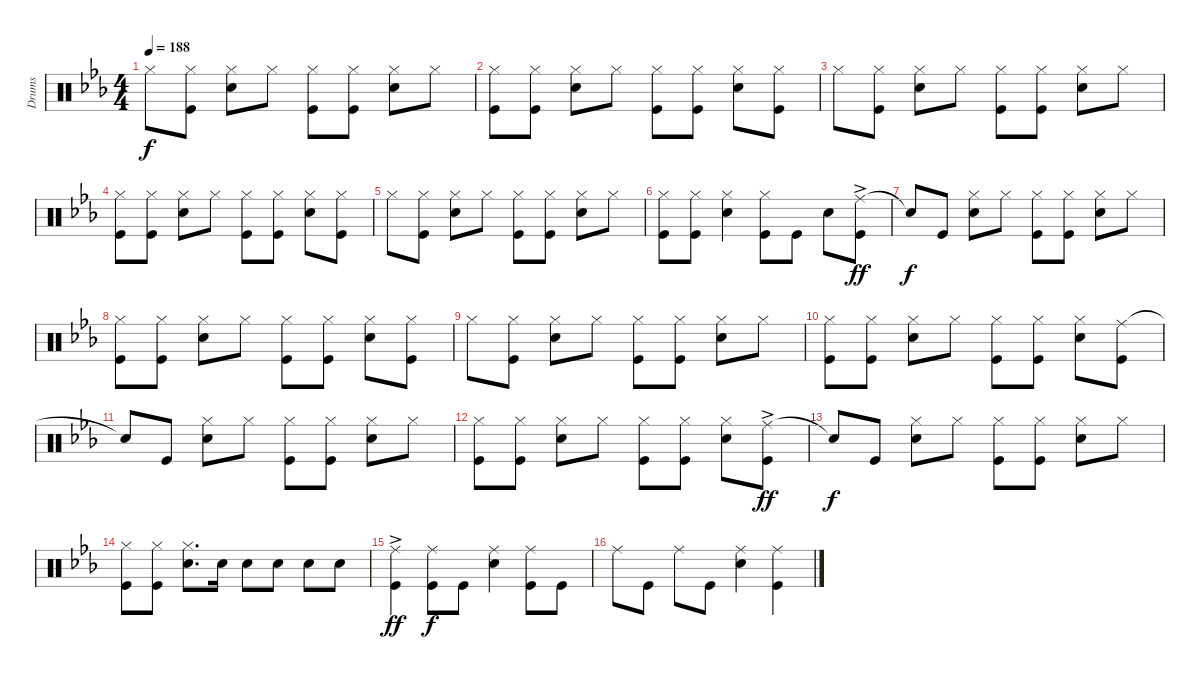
\track ("Drums" "Drums") {instrument percussion}
\staff {score}
\articulation defaults
\ts (4 4)
\tempo 188
\clef neutral
\ks eb "Hi-Hat (closed)".8{dy f}
("Hi-Hat (closed)" "Kick (hit)").8 ("Hi-Hat (closed)" "Snare (hit) 2").8 "Hi-Hat (closed)".8 ("Hi-Hat (closed)" "Kick (hit)").8 ("Hi-Hat (closed)" "Kick (hit)").8 ("Hi-Hat (closed)" "Snare (hit) 2").8 "Hi-Hat (closed)".8 |
("Hi-Hat (closed)" "Kick (hit)").8 ("Hi-Hat (closed)" "Kick (hit)").8 ("Hi-Hat (closed)" "Snare (hit) 2").8 "Hi-Hat (closed)".8 ("Hi-Hat (closed)" "Kick (hit)").8 ("Hi-Hat (closed)" "Kick (hit)").8 ("Hi-Hat (closed)" "Snare (hit) 2").8 ("Hi-Hat (closed)" "Kick (hit)").8 |
"Hi-Hat (closed)".8 ("Hi-Hat (closed)" "Kick (hit)").8 ("Hi-Hat (closed)" "Snare (hit) 2").8 "Hi-Hat (closed)".8 ("Hi-Hat (closed)" "Kick (hit)").8 ("Hi-Hat (closed)" "Kick (hit)").8 ("Hi-Hat (closed)" "Snare (hit) 2").8 "Hi-Hat (closed)".8 |
("Hi-Hat (closed)" "Kick (hit)").8 ("Hi-Hat (closed)" "Kick (hit)").8 ("Hi-Hat (closed)" "Snare (hit) 2").8 "Hi-Hat (closed)".8 ("Hi-Hat (closed)" "Kick (hit)").8 ("Hi-Hat (closed)" "Kick (hit)").8 ("Hi-Hat (closed)" "Snare (hit) 2").8 ("Hi-Hat (closed)" "Kick (hit)").8 |
"Hi-Hat (closed)".8 ("Hi-Hat (closed)" "Kick (hit)").8 ("Hi-Hat (closed)" "Snare (hit) 2").8 "Hi-Hat (closed)".8 ("Hi-Hat (closed)" "Kick (hit)").8 ("Hi-Hat (closed)" "Kick (hit)").8 ("Hi-Hat (closed)" "Snare (hit) 2").8 "Hi-Hat (closed)".8 |
("Hi-Hat (closed)" "Kick (hit)").8 ("Hi-Hat (closed)" "Kick (hit)").8 ("Hi-Hat (closed)" "Snare (hit) 2").4 ("Hi-Hat (closed)" "Kick (hit)").8 "Kick (hit)".8 "Snare (hit) 2".8 ("Ride (middle)"{ac} "Kick (hit)").8{dy ff} |
"Snare (hit)"{t}.8{dy f} "Kick (hit)".8 ("Hi-Hat (closed)" "Snare (hit) 2").8 "Hi-Hat (closed)".8 ("Hi-Hat (closed)" "Kick (hit)").8 ("Hi-Hat (closed)" "Kick (hit)").8 ("Hi-Hat (closed)" "Snare (hit) 2").8 "Hi-Hat (closed)".8 |
("Hi-Hat (closed)" "Kick (hit)").8 ("Hi-Hat (closed)" "Kick (hit)").8 ("Hi-Hat (closed)" "Snare (hit) 2").8 "Hi-Hat (closed)".8 ("Hi-Hat (closed)" "Kick (hit)").8 ("Hi-Hat (closed)" "Kick (hit)").8 ("Hi-Hat (closed)" "Snare (hit) 2").8 ("Hi-Hat (closed)" "Kick (hit)").8 |
"Hi-Hat (closed)".8 ("Hi-Hat (closed)" "Kick (hit)").8 ("Hi-Hat (closed)" "Snare (hit) 2").8 "Hi-Hat (closed)".8 ("Hi-Hat (closed)" "Kick (hit)").8 ("Hi-Hat (closed)" "Kick (hit)").8 ("Hi-Hat (closed)" "Snare (hit) 2").8 "Hi-Hat (closed)".8 |
("Hi-Hat (closed)" "Kick (hit)").8 ("Hi-Hat (closed)" "Kick (hit)").8 ("Hi-Hat (closed)" "Snare (hit) 2").8 "Hi-Hat (closed)".8 ("Hi-Hat (closed)" "Kick (hit)").8 ("Hi-Hat (closed)" "Kick (hit)").8 ("Hi-Hat (closed)" "Snare (hit) 2").8 ("Ride (middle)" "Kick (hit)").8 |
"Snare (hit)"{t}.8 "Kick (hit)".8 ("Hi-Hat (closed)" "Snare (hit) 2").8 "Hi-Hat (closed)".8 ("Hi-Hat (closed)" "Kick (hit)").8 ("Hi-Hat (closed)" "Kick (hit)").8 ("Hi-Hat (closed)" "Snare (hit) 2").8 "Hi-Hat (closed)".8 |
("Hi-Hat (closed)" "Kick (hit)").8 ("Hi-Hat (closed)" "Kick (hit)").8 ("Hi-Hat (closed)" "Snare (hit) 2").8 "Hi-Hat (closed)".8 ("Hi-Hat (closed)" "Kick (hit)").8 ("Hi-Hat (closed)" "Kick (hit)").8 ("Hi-Hat (closed)" "Snare (hit) 2").8 ("Ride (middle)"{ac} "Kick (hit)").8{dy ff} |
"Snare (hit)"{t}.8{dy f} "Kick (hit)".8 ("Hi-Hat (closed)" "Snare (hit) 2").8 "Hi-Hat (closed)".8 ("Hi-Hat (closed)" "Kick (hit)").8 ("Hi-Hat (closed)" "Kick (hit)").8 ("Hi-Hat (closed)" "Snare (hit) 2").8 "Hi-Hat (closed)".8 |
("Hi-Hat (closed)" "Kick (hit)").8 ("Hi-Hat (closed)" "Kick (hit)").8 ("Hi-Hat (closed)" "Snare (hit) 2").8{d} "Snare (hit) 2".16 "Snare (hit) 2".8 "Snare (hit) 2".8 "Snare (hit) 2".8 "Snare (hit) 2".8 |
("Ride (middle)"{ac} "Kick (hit)").4{dy ff} ("Ride (middle)" "Kick (hit)").8{dy f} "Kick (hit)".8 ("Ride (middle)" "Snare (hit) 2").4 ("Ride (middle)" "Kick (hit)").8 "Kick (hit)".8 |
"Ride (middle)".8 "Kick (hit)".8 "Ride (middle)".8 "Kick (hit)".8 ("Ride (middle)" "Snare (hit) 2").4 ("Ride (middle)" "Kick (hit)").4
